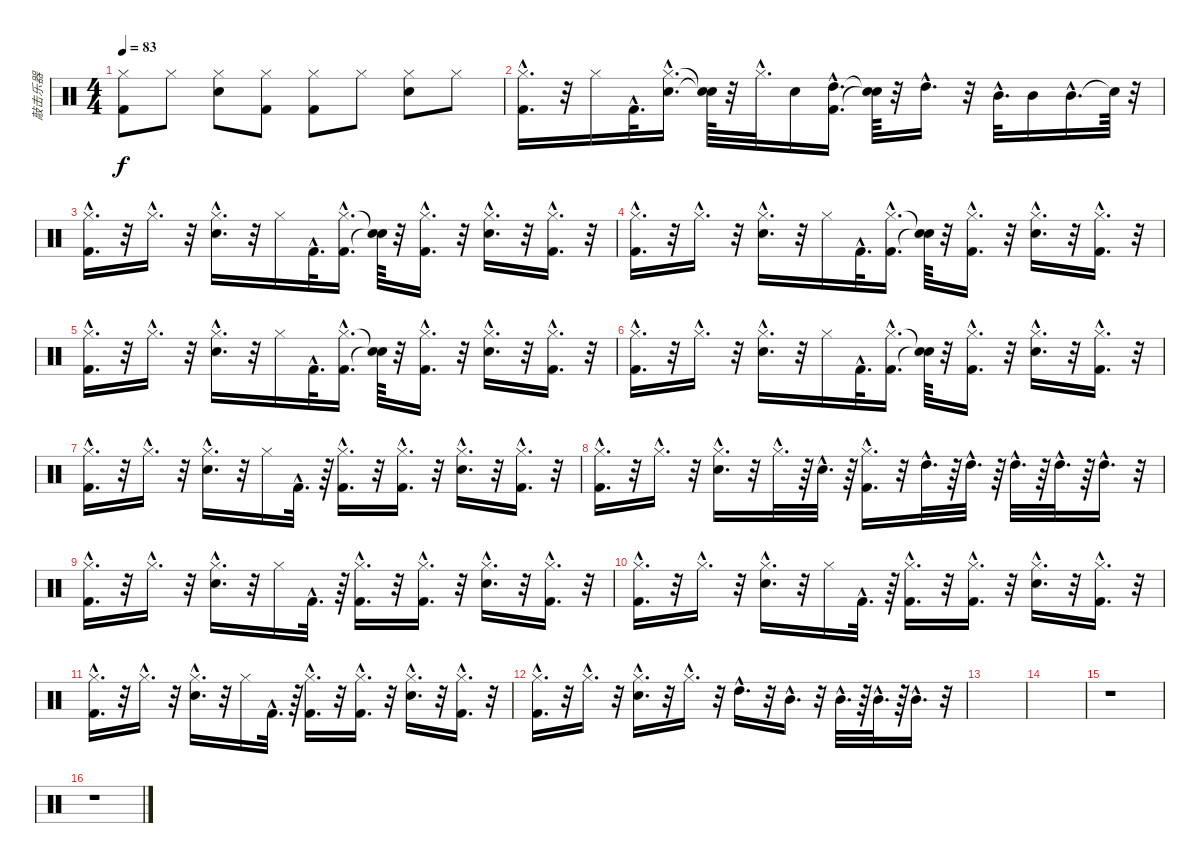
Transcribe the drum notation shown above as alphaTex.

\track ("敲击乐器" "敲击乐器") {instrument percussion}
\staff {score}
\articulation defaults
\ts (4 4)
\tempo 83
\clef neutral
\ks c
("Kick (hit) 2" "Hi-Hat (closed)").8{dy f} "Hi-Hat (closed)".8 ("Hi-Hat (closed)" "Snare (hit) 2").8 ("Hi-Hat (closed)" "Kick (hit) 2").8 ("Kick (hit) 2" "Hi-Hat (closed)").8 "Hi-Hat (closed)".8 ("Hi-Hat (closed)" "Snare (hit) 2").8 "Hi-Hat (closed)".8 |
("Hi-Hat (closed)"{hac} "Kick (hit) 2"{hac}).16{d} r.32 "Hi-Hat (closed)".16 "Kick (hit) 2"{hac}.32{d} ("Snare (hit) 2"{hac} "Hi-Hat (closed)"{hac}).16{d} ("Snare (hit)"{t} "Snare (hit)"{t}).64 r.32 "Hi-Hat (closed)"{hac}.32{d} "Snare (hit) 2".16 ("Kick (hit) 2"{hac} "High Tom (hit)"{hac}).16{d} ("Snare (hit)"{t} "Snare (hit)"{t}).64 r.32 "High Tom (hit)"{hac}.16{d} r.32 "Mid Tom (hit)"{hac}.32{d} "Mid Tom (hit)".16 "Mid Tom (hit)"{hac}.16{d} "Snare (hit)"{t}.64 r.32 |
("Kick (hit) 2"{hac} "Hi-Hat (closed)"{hac}).16{d} r.32 "Hi-Hat (closed)"{hac}.16{d} r.32 ("Hi-Hat (closed)"{hac} "Snare (hit) 2"{hac}).16{d} r.32 "Hi-Hat (closed)".16 "Kick (hit) 2"{hac}.32{d} ("Hi-Hat (closed)"{hac} "Kick (hit) 2"{hac}).16{d} ("Snare (hit)"{t} "Snare (hit)"{t}).64 r.32 ("Hi-Hat (closed)"{hac} "Kick (hit) 2"{hac}).16{d} r.32 ("Snare (hit) 2"{hac} "Hi-Hat (closed)"{hac}).16{d} r.32 ("Kick (hit) 2"{hac} "Hi-Hat (closed)"{hac}).16{d} r.32 |
("Kick (hit) 2"{hac} "Hi-Hat (closed)"{hac}).16{d} r.32 "Hi-Hat (closed)"{hac}.16{d} r.32 ("Snare (hit) 2"{hac} "Hi-Hat (closed)"{hac}).16{d} r.32 "Hi-Hat (closed)".16 "Kick (hit) 2"{hac}.32{d} ("Hi-Hat (closed)"{hac} "Kick (hit) 2"{hac}).16{d} ("Snare (hit)"{t} "Snare (hit)"{t}).64 r.32 ("Hi-Hat (closed)"{hac} "Kick (hit) 2"{hac}).16{d} r.32 ("Snare (hit) 2"{hac} "Hi-Hat (closed)"{hac}).16{d} r.32 ("Hi-Hat (closed)"{hac} "Kick (hit) 2"{hac}).16{d} r.32 |
("Kick (hit) 2"{hac} "Hi-Hat (closed)"{hac}).16{d} r.32 "Hi-Hat (closed)"{hac}.16{d} r.32 ("Snare (hit) 2"{hac} "Hi-Hat (closed)"{hac}).16{d} r.32 "Hi-Hat (closed)".16 "Kick (hit) 2"{hac}.32{d} ("Hi-Hat (closed)"{hac} "Kick (hit) 2"{hac}).16{d} ("Snare (hit)"{t} "Snare (hit)"{t}).64 r.32 ("Hi-Hat (closed)"{hac} "Kick (hit) 2"{hac}).16{d} r.32 ("Snare (hit) 2"{hac} "Hi-Hat (closed)"{hac}).16{d} r.32 ("Kick (hit) 2"{hac} "Hi-Hat (closed)"{hac}).16{d} r.32 |
("Hi-Hat (closed)"{hac} "Kick (hit) 2"{hac}).16{d} r.32 "Hi-Hat (closed)"{hac}.16{d} r.32 ("Snare (hit) 2"{hac} "Hi-Hat (closed)"{hac}).16{d} r.32 "Hi-Hat (closed)".16 "Kick (hit) 2"{hac}.32{d} ("Kick (hit) 2"{hac} "Hi-Hat (closed)"{hac}).16{d} ("Snare (hit)"{t} "Snare (hit)"{t}).64 r.32 ("Hi-Hat (closed)"{hac} "Kick (hit) 2"{hac}).16{d} r.32 ("Snare (hit) 2"{hac} "Hi-Hat (closed)"{hac}).16{d} r.32 ("Kick (hit) 2"{hac} "Hi-Hat (closed)"{hac}).16{d} r.32 |
("Kick (hit) 2"{hac} "Hi-Hat (closed)"{hac}).16{d} r.32 "Hi-Hat (closed)"{hac}.16{d} r.32 ("Hi-Hat (closed)"{hac} "Snare (hit) 2"{hac}).16{d} r.32 "Hi-Hat (closed)".16 "Kick (hit) 2"{hac}.32{d} r.64 ("Hi-Hat (closed)"{hac} "Kick (hit) 2"{hac}).16{d} r.32 ("Hi-Hat (closed)"{hac} "Kick (hit) 2"{hac}).16{d} r.32 ("Snare (hit) 2"{hac} "Hi-Hat (closed)"{hac}).16{d} r.32 ("Kick (hit) 2"{hac} "Hi-Hat (closed)"{hac}).16{d} r.32 |
("Kick (hit) 2"{hac} "Hi-Hat (closed)"{hac}).16{d} r.32 "Hi-Hat (closed)"{hac}.16{d} r.32 ("Snare (hit) 2"{hac} "Hi-Hat (closed)"{hac}).16{d} r.32 "Hi-Hat (closed)"{hac}.32{d} r.64 "Snare (hit) 2"{hac}.32{d} r.64 ("Kick (hit) 2"{hac} "Hi-Hat (closed)"{hac}).16{d} r.32 "High Tom (hit)"{hac}.32{d} r.64 "High Tom (hit)"{hac}.32{d} r.64 "High Tom (hit)"{hac}.32{d} r.64 "High Tom (hit)"{hac}.32{d} r.64 "High Tom (hit)"{hac}.16{d} r.32 |
("Hi-Hat (closed)"{hac} "Kick (hit) 2"{hac}).16{d} r.32 "Hi-Hat (closed)"{hac}.16{d} r.32 ("Snare (hit) 2"{hac} "Hi-Hat (closed)"{hac}).16{d} r.32 "Hi-Hat (closed)".16 "Kick (hit) 2"{hac}.32{d} r.64 ("Hi-Hat (closed)"{hac} "Kick (hit) 2"{hac}).16{d} r.32 ("Hi-Hat (closed)"{hac} "Kick (hit) 2"{hac}).16{d} r.32 ("Snare (hit) 2"{hac} "Hi-Hat (closed)"{hac}).16{d} r.32 ("Hi-Hat (closed)"{hac} "Kick (hit) 2"{hac}).16{d} r.32 |
("Hi-Hat (closed)"{hac} "Kick (hit) 2"{hac}).16{d} r.32 "Hi-Hat (closed)"{hac}.16{d} r.32 ("Hi-Hat (closed)"{hac} "Snare (hit) 2"{hac}).16{d} r.32 "Hi-Hat (closed)".16 "Kick (hit) 2"{hac}.32{d} r.64 ("Hi-Hat (closed)"{hac} "Kick (hit) 2"{hac}).16{d} r.32 ("Hi-Hat (closed)"{hac} "Kick (hit) 2"{hac}).16{d} r.32 ("Hi-Hat (closed)"{hac} "Snare (hit) 2"{hac}).16{d} r.32 ("Kick (hit) 2"{hac} "Hi-Hat (closed)"{hac}).16{d} r.32 |
("Hi-Hat (closed)"{hac} "Kick (hit) 2"{hac}).16{d} r.32 "Hi-Hat (closed)"{hac}.16{d} r.32 ("Snare (hit) 2"{hac} "Hi-Hat (closed)"{hac}).16{d} r.32 "Hi-Hat (closed)".16 "Kick (hit) 2"{hac}.32{d} r.64 ("Hi-Hat (closed)"{hac} "Kick (hit) 2"{hac}).16{d} r.32 ("Hi-Hat (closed)"{hac} "Kick (hit) 2"{hac}).16{d} r.32 ("Hi-Hat (closed)"{hac} "Snare (hit) 2"{hac}).16{d} r.32 ("Hi-Hat (closed)"{hac} "Kick (hit) 2"{hac}).16{d} r.32 |
("Kick (hit) 2"{hac} "Hi-Hat (closed)"{hac}).16{d} r.32 "Hi-Hat (closed)"{hac}.16{d} r.32 ("Snare (hit) 2"{hac} "Hi-Hat (closed)"{hac}).16{d} r.32 "Hi-Hat (closed)"{hac}.16{d} r.32 "High Tom (hit)"{hac}.16{d} r.32 "Mid Tom (hit)"{hac}.16{d} r.32 "Mid Tom (hit)"{hac}.32{d} r.64 "Mid Tom (hit)"{hac}.32{d} r.64 "Mid Tom (hit)"{hac}.16{d} r.32 |
|
|
r.1 |
r.1
